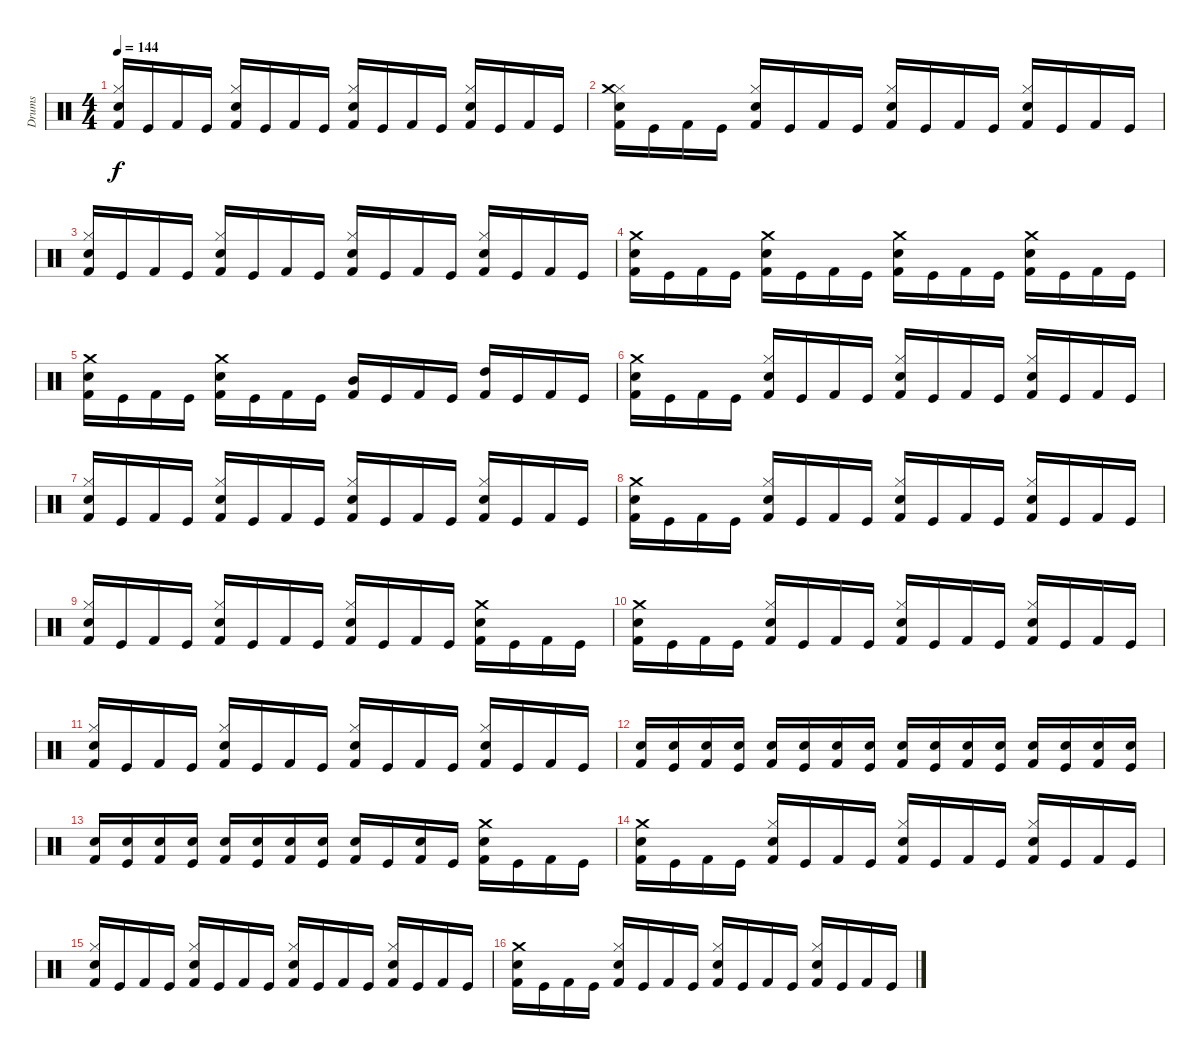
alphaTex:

\track ("Drums" "Drums") {instrument percussion}
\staff {score}
\articulation defaults
\ts (4 4)
\tempo 144
\clef neutral
\ks c
("Snare (hit) 2" "Hi-Hat (closed)" "Kick (hit) 2").16{dy f} "Kick (hit)".16 "Kick (hit) 2".16 "Kick (hit)".16 ("Snare (hit) 2" "Hi-Hat (closed)" "Kick (hit) 2").16 "Kick (hit)".16 "Kick (hit) 2".16 "Kick (hit)".16 ("Snare (hit) 2" "Hi-Hat (closed)" "Kick (hit) 2").16 "Kick (hit)".16 "Kick (hit) 2".16 "Kick (hit)".16 ("Snare (hit) 2" "Hi-Hat (closed)" "Kick (hit) 2").16 "Kick (hit)".16 "Kick (hit) 2".16 "Kick (hit)".16 |
("Hi-Hat (closed)" "Snare (hit) 2" "Crash medium (hit)" "Kick (hit) 2").16 "Kick (hit)".16 "Kick (hit) 2".16 "Kick (hit)".16 ("Hi-Hat (closed)" "Snare (hit) 2" "Kick (hit) 2").16 "Kick (hit)".16 "Kick (hit) 2".16 "Kick (hit)".16 ("Hi-Hat (closed)" "Snare (hit) 2" "Kick (hit) 2").16 "Kick (hit)".16 "Kick (hit) 2".16 "Kick (hit)".16 ("Hi-Hat (closed)" "Snare (hit) 2" "Kick (hit) 2").16 "Kick (hit)".16 "Kick (hit) 2".16 "Kick (hit)".16 |
("Hi-Hat (closed)" "Snare (hit) 2" "Kick (hit) 2").16 "Kick (hit)".16 "Kick (hit) 2".16 "Kick (hit)".16 ("Hi-Hat (closed)" "Snare (hit) 2" "Kick (hit) 2").16 "Kick (hit)".16 "Kick (hit) 2".16 "Kick (hit)".16 ("Hi-Hat (closed)" "Snare (hit) 2" "Kick (hit) 2").16 "Kick (hit)".16 "Kick (hit) 2".16 "Kick (hit)".16 ("Hi-Hat (closed)" "Snare (hit) 2" "Kick (hit) 2").16 "Kick (hit)".16 "Kick (hit) 2".16 "Kick (hit)".16 |
("Snare (hit) 2" "Crash medium (hit)" "Kick (hit) 2").16 "Kick (hit)".16 "Kick (hit) 2".16 "Kick (hit)".16 ("Snare (hit) 2" "Crash medium (hit)" "Kick (hit) 2").16 "Kick (hit)".16 "Kick (hit) 2".16 "Kick (hit)".16 ("Snare (hit) 2" "Crash medium (hit)" "Kick (hit) 2").16 "Kick (hit)".16 "Kick (hit) 2".16 "Kick (hit)".16 ("Snare (hit) 2" "Crash medium (hit)" "Kick (hit) 2").16 "Kick (hit)".16 "Kick (hit) 2".16 "Kick (hit)".16 |
("Snare (hit) 2" "Crash medium (hit)" "Kick (hit) 2").16 "Kick (hit)".16 "Kick (hit) 2".16 "Kick (hit)".16 ("Snare (hit) 2" "Crash medium (hit)" "Kick (hit) 2").16 "Kick (hit)".16 "Kick (hit) 2".16 "Kick (hit)".16 ("Mid Tom (hit)" "Kick (hit) 2").16 "Kick (hit)".16 "Kick (hit) 2".16 "Kick (hit)".16 ("High Tom (hit)" "Kick (hit) 2").16 "Kick (hit)".16 "Kick (hit) 2".16 "Kick (hit)".16 |
("Crash medium (hit)" "Snare (hit) 2" "Kick (hit) 2").16 "Kick (hit)".16 "Kick (hit) 2".16 "Kick (hit)".16 ("Hi-Hat (closed)" "Snare (hit) 2" "Kick (hit) 2").16 "Kick (hit)".16 "Kick (hit) 2".16 "Kick (hit)".16 ("Hi-Hat (closed)" "Snare (hit) 2" "Kick (hit) 2").16 "Kick (hit)".16 "Kick (hit) 2".16 "Kick (hit)".16 ("Hi-Hat (closed)" "Snare (hit) 2" "Kick (hit) 2").16 "Kick (hit)".16 "Kick (hit) 2".16 "Kick (hit)".16 |
("Hi-Hat (closed)" "Snare (hit) 2" "Kick (hit) 2").16 "Kick (hit)".16 "Kick (hit) 2".16 "Kick (hit)".16 ("Hi-Hat (closed)" "Snare (hit) 2" "Kick (hit) 2").16 "Kick (hit)".16 "Kick (hit) 2".16 "Kick (hit)".16 ("Hi-Hat (closed)" "Snare (hit) 2" "Kick (hit) 2").16 "Kick (hit)".16 "Kick (hit) 2".16 "Kick (hit)".16 ("Hi-Hat (closed)" "Snare (hit) 2" "Kick (hit) 2").16 "Kick (hit)".16 "Kick (hit) 2".16 "Kick (hit)".16 |
("Snare (hit) 2" "Crash medium (hit)" "Kick (hit) 2").16 "Kick (hit)".16 "Kick (hit) 2".16 "Kick (hit)".16 ("Hi-Hat (closed)" "Snare (hit) 2" "Kick (hit) 2").16 "Kick (hit)".16 "Kick (hit) 2".16 "Kick (hit)".16 ("Hi-Hat (closed)" "Snare (hit) 2" "Kick (hit) 2").16 "Kick (hit)".16 "Kick (hit) 2".16 "Kick (hit)".16 ("Hi-Hat (closed)" "Snare (hit) 2" "Kick (hit) 2").16 "Kick (hit)".16 "Kick (hit) 2".16 "Kick (hit)".16 |
("Snare (hit) 2" "Hi-Hat (closed)" "Kick (hit) 2").16 "Kick (hit)".16 "Kick (hit) 2".16 "Kick (hit)".16 ("Snare (hit) 2" "Hi-Hat (closed)" "Kick (hit) 2").16 "Kick (hit)".16 "Kick (hit) 2".16 "Kick (hit)".16 ("Snare (hit) 2" "Hi-Hat (closed)" "Kick (hit) 2").16 "Kick (hit)".16 "Kick (hit) 2".16 "Kick (hit)".16 ("Crash medium (hit)" "Snare (hit) 2" "Kick (hit) 2").16 "Kick (hit)".16 "Kick (hit) 2".16 "Kick (hit)".16 |
("Snare (hit) 2" "Crash medium (hit)" "Kick (hit) 2").16 "Kick (hit)".16 "Kick (hit) 2".16 "Kick (hit)".16 ("Hi-Hat (closed)" "Snare (hit) 2" "Kick (hit) 2").16 "Kick (hit)".16 "Kick (hit) 2".16 "Kick (hit)".16 ("Hi-Hat (closed)" "Snare (hit) 2" "Kick (hit) 2").16 "Kick (hit)".16 "Kick (hit) 2".16 "Kick (hit)".16 ("Hi-Hat (closed)" "Snare (hit) 2" "Kick (hit) 2").16 "Kick (hit)".16 "Kick (hit) 2".16 "Kick (hit)".16 |
("Snare (hit) 2" "Hi-Hat (closed)" "Kick (hit) 2").16 "Kick (hit)".16 "Kick (hit) 2".16 "Kick (hit)".16 ("Snare (hit) 2" "Hi-Hat (closed)" "Kick (hit) 2").16 "Kick (hit)".16 "Kick (hit) 2".16 "Kick (hit)".16 ("Snare (hit) 2" "Hi-Hat (closed)" "Kick (hit) 2").16 "Kick (hit)".16 "Kick (hit) 2".16 "Kick (hit)".16 ("Snare (hit) 2" "Hi-Hat (closed)" "Kick (hit) 2").16 "Kick (hit)".16 "Kick (hit) 2".16 "Kick (hit)".16 |
("Snare (hit) 2" "Kick (hit) 2").16 ("Snare (hit) 2" "Kick (hit)").16 ("Snare (hit) 2" "Kick (hit) 2").16 ("Snare (hit) 2" "Kick (hit)").16 ("Snare (hit) 2" "Kick (hit) 2").16 ("Snare (hit) 2" "Kick (hit)").16 ("Snare (hit) 2" "Kick (hit) 2").16 ("Snare (hit) 2" "Kick (hit)").16 ("Snare (hit) 2" "Kick (hit) 2").16 ("Snare (hit) 2" "Kick (hit)").16 ("Snare (hit) 2" "Kick (hit) 2").16 ("Snare (hit) 2" "Kick (hit)").16 ("Snare (hit) 2" "Kick (hit) 2").16 ("Snare (hit) 2" "Kick (hit)").16 ("Snare (hit) 2" "Kick (hit) 2").16 ("Snare (hit) 2" "Kick (hit)").16 |
("Snare (hit) 2" "Kick (hit) 2").16 ("Snare (hit) 2" "Kick (hit)").16 ("Snare (hit) 2" "Kick (hit) 2").16 ("Snare (hit) 2" "Kick (hit)").16 ("Snare (hit) 2" "Kick (hit) 2").16 ("Snare (hit) 2" "Kick (hit)").16 ("Snare (hit) 2" "Kick (hit) 2").16 ("Snare (hit) 2" "Kick (hit)").16 ("Snare (hit) 2" "Kick (hit) 2").16 "Kick (hit)".16 ("Snare (hit) 2" "Kick (hit) 2").16 "Kick (hit)".16 ("Crash medium (hit)" "Snare (hit) 2" "Kick (hit) 2").16 "Kick (hit)".16 "Kick (hit) 2".16 "Kick (hit)".16 |
("Snare (hit) 2" "Crash medium (hit)" "Kick (hit) 2").16 "Kick (hit)".16 "Kick (hit) 2".16 "Kick (hit)".16 ("Hi-Hat (closed)" "Snare (hit) 2" "Kick (hit) 2").16 "Kick (hit)".16 "Kick (hit) 2".16 "Kick (hit)".16 ("Hi-Hat (closed)" "Snare (hit) 2" "Kick (hit) 2").16 "Kick (hit)".16 "Kick (hit) 2".16 "Kick (hit)".16 ("Hi-Hat (closed)" "Snare (hit) 2" "Kick (hit) 2").16 "Kick (hit)".16 "Kick (hit) 2".16 "Kick (hit)".16 |
("Snare (hit) 2" "Hi-Hat (closed)" "Kick (hit) 2").16 "Kick (hit)".16 "Kick (hit) 2".16 "Kick (hit)".16 ("Snare (hit) 2" "Hi-Hat (closed)" "Kick (hit) 2").16 "Kick (hit)".16 "Kick (hit) 2".16 "Kick (hit)".16 ("Snare (hit) 2" "Hi-Hat (closed)" "Kick (hit) 2").16 "Kick (hit)".16 "Kick (hit) 2".16 "Kick (hit)".16 ("Snare (hit) 2" "Hi-Hat (closed)" "Kick (hit) 2").16 "Kick (hit)".16 "Kick (hit) 2".16 "Kick (hit)".16 |
("Snare (hit) 2" "Crash medium (hit)" "Kick (hit) 2").16 "Kick (hit)".16 "Kick (hit) 2".16 "Kick (hit)".16 ("Hi-Hat (closed)" "Snare (hit) 2" "Kick (hit) 2").16 "Kick (hit)".16 "Kick (hit) 2".16 "Kick (hit)".16 ("Hi-Hat (closed)" "Snare (hit) 2" "Kick (hit) 2").16 "Kick (hit)".16 "Kick (hit) 2".16 "Kick (hit)".16 ("Hi-Hat (closed)" "Snare (hit) 2" "Kick (hit) 2").16 "Kick (hit)".16 "Kick (hit) 2".16 "Kick (hit)".16
